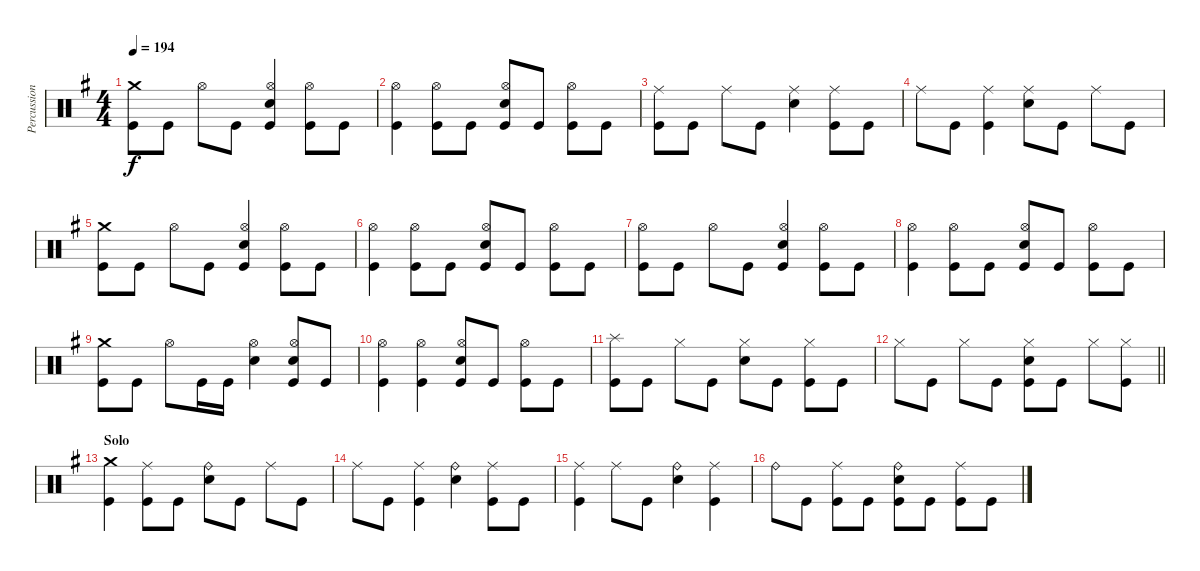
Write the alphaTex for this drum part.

\track ("Percussion" "Percussion") {instrument percussion}
\staff {score}
\articulation defaults
\ts (4 4)
\tempo 194
\clef neutral
\ks g
("Crash medium (hit)" "Kick (hit)").8{dy f} "Kick (hit)".8 "Hi-Hat (open)".8 "Kick (hit)".8 ("Hi-Hat (open)" "Electric Snare (hit)" "Kick (hit)").4 ("Hi-Hat (open)" "Kick (hit)").8 "Kick (hit)".8 |
("Hi-Hat (open)" "Kick (hit)").4 ("Hi-Hat (open)" "Kick (hit)").8 "Kick (hit)".8 ("Hi-Hat (open)" "Electric Snare (hit)" "Kick (hit)").8 "Kick (hit)".8 ("Hi-Hat (open)" "Kick (hit)").8 "Kick (hit)".8 |
("Ride (middle)" "Kick (hit)").8 "Kick (hit)".8 "Ride (middle)".8 "Kick (hit)".8 ("Ride (middle)" "Electric Snare (hit)").4 ("Ride (middle)" "Kick (hit)").8 "Kick (hit)".8 |
"Ride (middle)".8 "Kick (hit)".8 ("Ride (middle)" "Kick (hit)").4 ("Ride (middle)" "Electric Snare (hit)").8 "Kick (hit)".8 "Ride (middle)".8 "Kick (hit)".8 |
("Crash medium (hit)" "Kick (hit)").8 "Kick (hit)".8 "Hi-Hat (open)".8 "Kick (hit)".8 ("Hi-Hat (open)" "Electric Snare (hit)" "Kick (hit)").4 ("Hi-Hat (open)" "Kick (hit)").8 "Kick (hit)".8 |
("Hi-Hat (open)" "Kick (hit)").4 ("Hi-Hat (open)" "Kick (hit)").8 "Kick (hit)".8 ("Hi-Hat (open)" "Electric Snare (hit)" "Kick (hit)").8 "Kick (hit)".8 ("Hi-Hat (open)" "Kick (hit)").8 "Kick (hit)".8 |
("Hi-Hat (open)" "Kick (hit)").8 "Kick (hit)".8 "Hi-Hat (open)".8 "Kick (hit)".8 ("Hi-Hat (open)" "Electric Snare (hit)" "Kick (hit)").4 ("Hi-Hat (open)" "Kick (hit)").8 "Kick (hit)".8 |
("Hi-Hat (open)" "Kick (hit)").4 ("Hi-Hat (open)" "Kick (hit)").8 "Kick (hit)".8 ("Hi-Hat (open)" "Electric Snare (hit)" "Kick (hit)").8 "Kick (hit)".8 ("Hi-Hat (open)" "Kick (hit)").8 "Kick (hit)".8 |
("Crash medium (hit)" "Kick (hit)").8 "Kick (hit)".8 "Hi-Hat (open)".8 "Kick (hit)".16 "Kick (hit)".16 ("Hi-Hat (open)" "Electric Snare (hit)").4 ("Hi-Hat (open)" "Electric Snare (hit)" "Kick (hit)").8 "Kick (hit)".8 |
("Hi-Hat (open)" "Kick (hit)").4 ("Hi-Hat (open)" "Kick (hit)").4 ("Hi-Hat (open)" "Electric Snare (hit)" "Kick (hit)").8 "Kick (hit)".8 ("Hi-Hat (open)" "Kick (hit)").8 "Kick (hit)".8 |
("Splash (hit)" "Kick (hit)").8 "Kick (hit)".8 "Hi-Hat (closed)".8 "Kick (hit)".8 ("Hi-Hat (closed)" "Electric Snare (hit)").8 "Kick (hit)".8 ("Hi-Hat (closed)" "Kick (hit)").8 "Kick (hit)".8 |
\barLineRight lightlight "Hi-Hat (closed)".8 "Kick (hit)".8 "Hi-Hat (closed)".8 "Kick (hit)".8
("Hi-Hat (closed)" "Electric Snare (hit)" "Kick (hit)").8 "Kick (hit)".8 "Hi-Hat (closed)".8 ("Hi-Hat (closed)" "Kick (hit)").8 |
\section ("" "Solo")
("Crash medium (hit)" "Kick (hit)").4 ("Ride (middle)" "Kick (hit)").8 "Kick (hit)".8 ("Ride (bell)" "Electric Snare (hit)").8 "Kick (hit)".8 "Ride (middle)".8 "Kick (hit)".8 |
"Ride (middle)".8 "Kick (hit)".8 ("Ride (middle)" "Kick (hit)").4 ("Ride (bell)" "Electric Snare (hit)").4 ("Ride (middle)" "Kick (hit)").8 "Kick (hit)".8 |
("Ride (middle)" "Kick (hit)").4 "Ride (middle)".8 "Kick (hit)".8 ("Ride (bell)" "Electric Snare (hit)").4 ("Ride (middle)" "Kick (hit)").4 |
"Ride (bell)".8 "Kick (hit)".8 ("Ride (middle)" "Kick (hit)").8 "Kick (hit)".8 ("Ride (bell)" "Electric Snare (hit)" "Kick (hit)").8 "Kick (hit)".8 ("Ride (middle)" "Kick (hit)").8 "Kick (hit)".8
